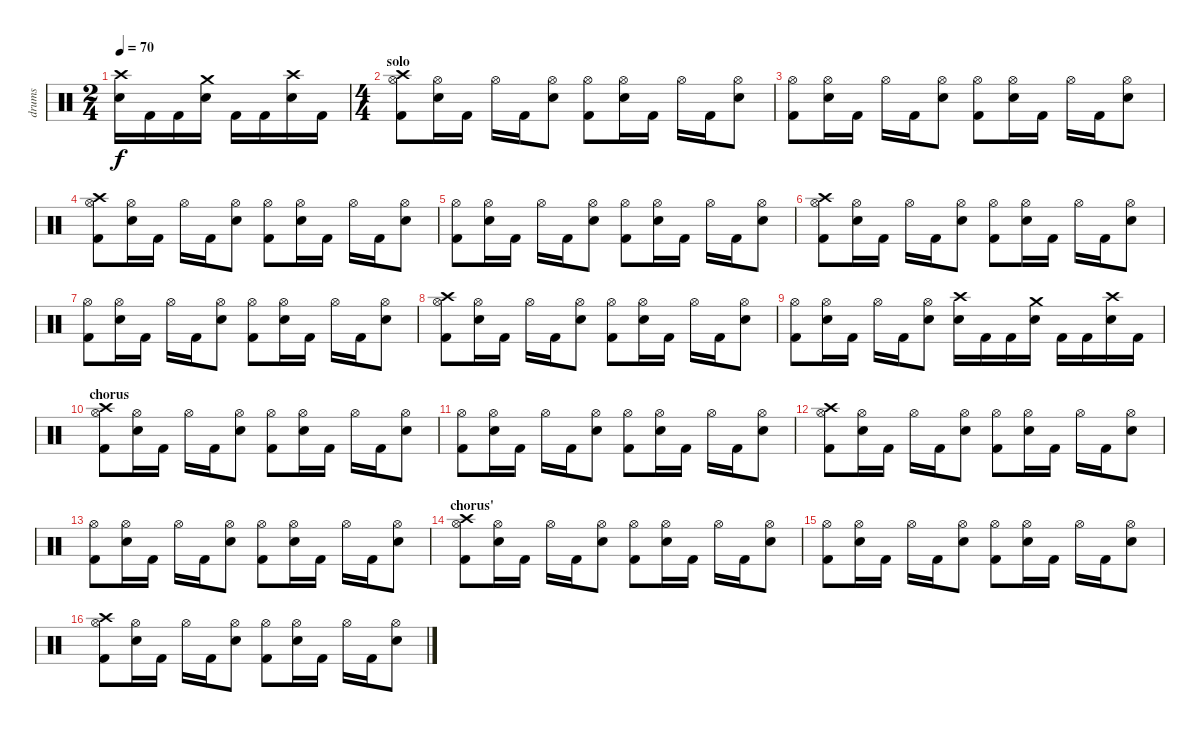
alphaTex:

\track ("drums" "drums") {instrument percussion}
\staff {score}
\articulation defaults
\ts (2 4)
\tempo 70
\clef neutral
\ks c
("Crash high (hit)" "Snare (hit) 2").16{dy f} "Kick (hit) 2".16 "Kick (hit) 2".16 ("Crash medium (hit)" "Snare (hit) 2").16 "Kick (hit) 2".16 "Kick (hit) 2".16 ("Crash high (hit)" "Snare (hit) 2").16 "Kick (hit) 2".16 |
\ts (4 4)
\section ("" "solo")
("Crash high (hit)" "Hi-Hat (open)" "Kick (hit) 2").8 ("Hi-Hat (open)" "Snare (hit) 2").16 "Kick (hit) 2".16 "Hi-Hat (open)".16 "Kick (hit) 2".16 ("Hi-Hat (open)" "Snare (hit) 2").8 ("Hi-Hat (open)" "Kick (hit) 2").8 ("Hi-Hat (open)" "Snare (hit) 2").16 "Kick (hit) 2".16 "Hi-Hat (open)".16 "Kick (hit) 2".16 ("Hi-Hat (open)" "Snare (hit) 2").8 |
("Hi-Hat (open)" "Kick (hit) 2").8 ("Hi-Hat (open)" "Snare (hit) 2").16 "Kick (hit) 2".16 "Hi-Hat (open)".16 "Kick (hit) 2".16 ("Hi-Hat (open)" "Snare (hit) 2").8 ("Hi-Hat (open)" "Kick (hit) 2").8 ("Hi-Hat (open)" "Snare (hit) 2").16 "Kick (hit) 2".16 "Hi-Hat (open)".16 "Kick (hit) 2".16 ("Hi-Hat (open)" "Snare (hit) 2").8 |
("Crash high (hit)" "Hi-Hat (open)" "Kick (hit) 2").8 ("Hi-Hat (open)" "Snare (hit) 2").16 "Kick (hit) 2".16 "Hi-Hat (open)".16 "Kick (hit) 2".16 ("Hi-Hat (open)" "Snare (hit) 2").8 ("Hi-Hat (open)" "Kick (hit) 2").8 ("Hi-Hat (open)" "Snare (hit) 2").16 "Kick (hit) 2".16 "Hi-Hat (open)".16 "Kick (hit) 2".16 ("Hi-Hat (open)" "Snare (hit) 2").8 |
("Hi-Hat (open)" "Kick (hit) 2").8 ("Hi-Hat (open)" "Snare (hit) 2").16 "Kick (hit) 2".16 "Hi-Hat (open)".16 "Kick (hit) 2".16 ("Hi-Hat (open)" "Snare (hit) 2").8 ("Hi-Hat (open)" "Kick (hit) 2").8 ("Hi-Hat (open)" "Snare (hit) 2").16 "Kick (hit) 2".16 "Hi-Hat (open)".16 "Kick (hit) 2".16 ("Hi-Hat (open)" "Snare (hit) 2").8 |
("Crash high (hit)" "Hi-Hat (open)" "Kick (hit) 2").8 ("Hi-Hat (open)" "Snare (hit) 2").16 "Kick (hit) 2".16 "Hi-Hat (open)".16 "Kick (hit) 2".16 ("Hi-Hat (open)" "Snare (hit) 2").8 ("Hi-Hat (open)" "Kick (hit) 2").8 ("Hi-Hat (open)" "Snare (hit) 2").16 "Kick (hit) 2".16 "Hi-Hat (open)".16 "Kick (hit) 2".16 ("Hi-Hat (open)" "Snare (hit) 2").8 |
("Hi-Hat (open)" "Kick (hit) 2").8 ("Hi-Hat (open)" "Snare (hit) 2").16 "Kick (hit) 2".16 "Hi-Hat (open)".16 "Kick (hit) 2".16 ("Hi-Hat (open)" "Snare (hit) 2").8 ("Hi-Hat (open)" "Kick (hit) 2").8 ("Hi-Hat (open)" "Snare (hit) 2").16 "Kick (hit) 2".16 "Hi-Hat (open)".16 "Kick (hit) 2".16 ("Hi-Hat (open)" "Snare (hit) 2").8 |
("Crash high (hit)" "Hi-Hat (open)" "Kick (hit) 2").8 ("Hi-Hat (open)" "Snare (hit) 2").16 "Kick (hit) 2".16 "Hi-Hat (open)".16 "Kick (hit) 2".16 ("Hi-Hat (open)" "Snare (hit) 2").8 ("Hi-Hat (open)" "Kick (hit) 2").8 ("Hi-Hat (open)" "Snare (hit) 2").16 "Kick (hit) 2".16 "Hi-Hat (open)".16 "Kick (hit) 2".16 ("Hi-Hat (open)" "Snare (hit) 2").8 |
("Hi-Hat (open)" "Kick (hit) 2").8 ("Hi-Hat (open)" "Snare (hit) 2").16 "Kick (hit) 2".16 "Hi-Hat (open)".16 "Kick (hit) 2".16 ("Hi-Hat (open)" "Snare (hit) 2").8 ("Crash high (hit)" "Snare (hit) 2").16 "Kick (hit) 2".16 "Kick (hit) 2".16 ("Crash medium (hit)" "Snare (hit) 2").16 "Kick (hit) 2".16 "Kick (hit) 2".16 ("Crash high (hit)" "Snare (hit) 2").16 "Kick (hit) 2".16 |
\section ("" "chorus")
("Crash high (hit)" "Hi-Hat (open)" "Kick (hit) 2").8 ("Hi-Hat (open)" "Snare (hit) 2").16 "Kick (hit) 2".16 "Hi-Hat (open)".16 "Kick (hit) 2".16 ("Hi-Hat (open)" "Snare (hit) 2").8 ("Hi-Hat (open)" "Kick (hit) 2").8 ("Hi-Hat (open)" "Snare (hit) 2").16 "Kick (hit) 2".16 "Hi-Hat (open)".16 "Kick (hit) 2".16 ("Hi-Hat (open)" "Snare (hit) 2").8 |
("Hi-Hat (open)" "Kick (hit) 2").8 ("Hi-Hat (open)" "Snare (hit) 2").16 "Kick (hit) 2".16 "Hi-Hat (open)".16 "Kick (hit) 2".16 ("Hi-Hat (open)" "Snare (hit) 2").8 ("Hi-Hat (open)" "Kick (hit) 2").8 ("Hi-Hat (open)" "Snare (hit) 2").16 "Kick (hit) 2".16 "Hi-Hat (open)".16 "Kick (hit) 2".16 ("Hi-Hat (open)" "Snare (hit) 2").8 |
("Crash high (hit)" "Hi-Hat (open)" "Kick (hit) 2").8 ("Hi-Hat (open)" "Snare (hit) 2").16 "Kick (hit) 2".16 "Hi-Hat (open)".16 "Kick (hit) 2".16 ("Hi-Hat (open)" "Snare (hit) 2").8 ("Hi-Hat (open)" "Kick (hit) 2").8 ("Hi-Hat (open)" "Snare (hit) 2").16 "Kick (hit) 2".16 "Hi-Hat (open)".16 "Kick (hit) 2".16 ("Hi-Hat (open)" "Snare (hit) 2").8 |
("Hi-Hat (open)" "Kick (hit) 2").8 ("Hi-Hat (open)" "Snare (hit) 2").16 "Kick (hit) 2".16 "Hi-Hat (open)".16 "Kick (hit) 2".16 ("Hi-Hat (open)" "Snare (hit) 2").8 ("Hi-Hat (open)" "Kick (hit) 2").8 ("Hi-Hat (open)" "Snare (hit) 2").16 "Kick (hit) 2".16 "Hi-Hat (open)".16 "Kick (hit) 2".16 ("Hi-Hat (open)" "Snare (hit) 2").8 |
\section ("" "chorus'")
("Crash high (hit)" "Hi-Hat (open)" "Kick (hit) 2").8 ("Hi-Hat (open)" "Snare (hit) 2").16 "Kick (hit) 2".16 "Hi-Hat (open)".16 "Kick (hit) 2".16 ("Hi-Hat (open)" "Snare (hit) 2").8 ("Hi-Hat (open)" "Kick (hit) 2").8 ("Hi-Hat (open)" "Snare (hit) 2").16 "Kick (hit) 2".16 "Hi-Hat (open)".16 "Kick (hit) 2".16 ("Hi-Hat (open)" "Snare (hit) 2").8 |
("Hi-Hat (open)" "Kick (hit) 2").8 ("Hi-Hat (open)" "Snare (hit) 2").16 "Kick (hit) 2".16 "Hi-Hat (open)".16 "Kick (hit) 2".16 ("Hi-Hat (open)" "Snare (hit) 2").8 ("Hi-Hat (open)" "Kick (hit) 2").8 ("Hi-Hat (open)" "Snare (hit) 2").16 "Kick (hit) 2".16 "Hi-Hat (open)".16 "Kick (hit) 2".16 ("Hi-Hat (open)" "Snare (hit) 2").8 |
("Crash high (hit)" "Hi-Hat (open)" "Kick (hit) 2").8 ("Hi-Hat (open)" "Snare (hit) 2").16 "Kick (hit) 2".16 "Hi-Hat (open)".16 "Kick (hit) 2".16 ("Hi-Hat (open)" "Snare (hit) 2").8 ("Hi-Hat (open)" "Kick (hit) 2").8 ("Hi-Hat (open)" "Snare (hit) 2").16 "Kick (hit) 2".16 "Hi-Hat (open)".16 "Kick (hit) 2".16 ("Hi-Hat (open)" "Snare (hit) 2").8
